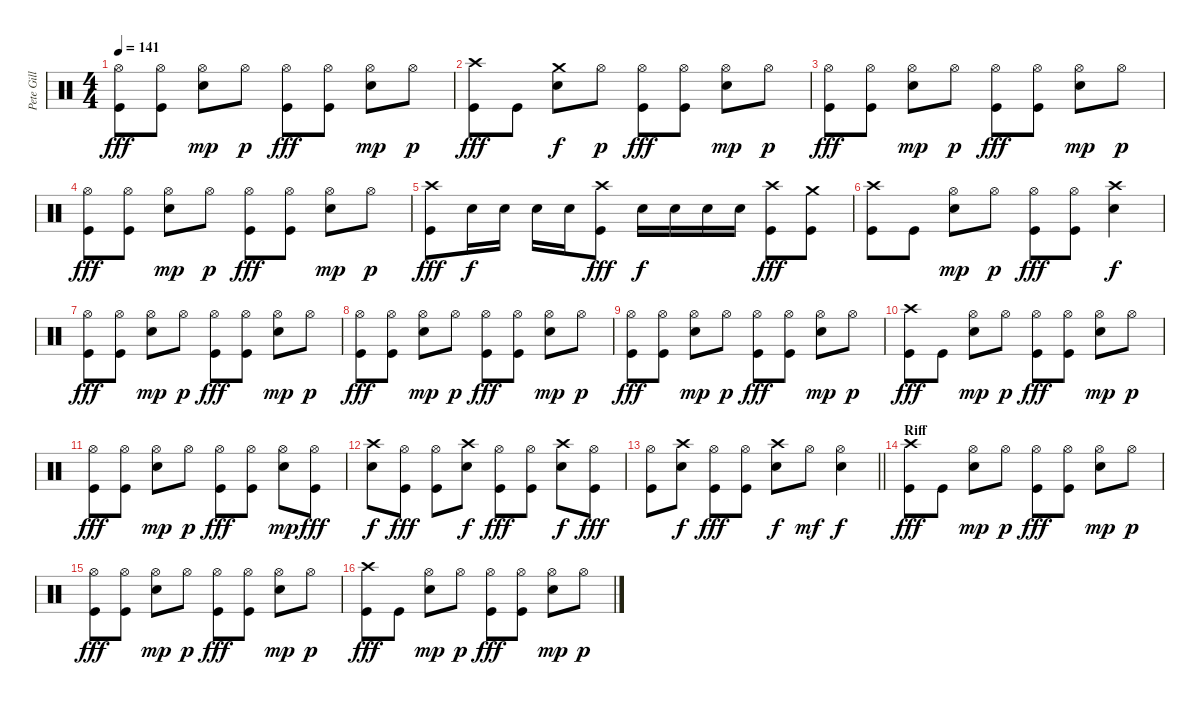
\track ("Pete Gill" "Pete Gill") {instrument percussion}
\staff {score}
\articulation defaults
\ts (4 4)
\tempo 141
\clef neutral
\ks c
("Hi-Hat (open)" "Kick (hit)").8{dy fff} ("Hi-Hat (open)" "Kick (hit)").8 ("Hi-Hat (open)" "Electric Snare (hit)").8{dy mp} "Hi-Hat (open)".8{dy p} ("Hi-Hat (open)" "Kick (hit)").8{dy fff} ("Hi-Hat (open)" "Kick (hit)").8 ("Hi-Hat (open)" "Electric Snare (hit)").8{dy mp} "Hi-Hat (open)".8{dy p} |
("Crash high (hit)" "Kick (hit)").8{dy fff} "Kick (hit)".8 ("Crash medium (hit)" "Electric Snare (hit)").8{dy f} "Hi-Hat (open)".8{dy p} ("Hi-Hat (open)" "Kick (hit)").8{dy fff} ("Hi-Hat (open)" "Kick (hit)").8 ("Hi-Hat (open)" "Electric Snare (hit)").8{dy mp} "Hi-Hat (open)".8{dy p} |
("Hi-Hat (open)" "Kick (hit)").8{dy fff} ("Hi-Hat (open)" "Kick (hit)").8 ("Hi-Hat (open)" "Electric Snare (hit)").8{dy mp} "Hi-Hat (open)".8{dy p} ("Hi-Hat (open)" "Kick (hit)").8{dy fff} ("Hi-Hat (open)" "Kick (hit)").8 ("Hi-Hat (open)" "Electric Snare (hit)").8{dy mp} "Hi-Hat (open)".8{dy p} |
("Hi-Hat (open)" "Kick (hit)").8{dy fff} ("Hi-Hat (open)" "Kick (hit)").8 ("Hi-Hat (open)" "Electric Snare (hit)").8{dy mp} "Hi-Hat (open)".8{dy p} ("Hi-Hat (open)" "Kick (hit)").8{dy fff} ("Hi-Hat (open)" "Kick (hit)").8 ("Hi-Hat (open)" "Electric Snare (hit)").8{dy mp} "Hi-Hat (open)".8{dy p} |
("Crash high (hit)" "Kick (hit)").8{dy fff} "Electric Snare (hit)".16{dy f} "Electric Snare (hit)".16 "Electric Snare (hit)".16 "Electric Snare (hit)".16 ("Crash high (hit)" "Kick (hit)").8{dy fff} "Electric Snare (hit)".16{dy f} "Electric Snare (hit)".16 "Electric Snare (hit)".16 "Electric Snare (hit)".16 ("Crash high (hit)" "Kick (hit)").8{dy fff} ("Crash medium (hit)" "Kick (hit)").8 |
("Crash high (hit)" "Kick (hit)").8 "Kick (hit)".8 ("Hi-Hat (open)" "Electric Snare (hit)").8{dy mp} "Hi-Hat (open)".8{dy p} ("Hi-Hat (open)" "Kick (hit)").8{dy fff} ("Hi-Hat (open)" "Kick (hit)").8 ("Crash high (hit)" "Electric Snare (hit)").4{dy f} |
("Hi-Hat (open)" "Kick (hit)").8{dy fff} ("Hi-Hat (open)" "Kick (hit)").8 ("Hi-Hat (open)" "Electric Snare (hit)").8{dy mp} "Hi-Hat (open)".8{dy p} ("Hi-Hat (open)" "Kick (hit)").8{dy fff} ("Hi-Hat (open)" "Kick (hit)").8 ("Hi-Hat (open)" "Electric Snare (hit)").8{dy mp} "Hi-Hat (open)".8{dy p} |
("Hi-Hat (open)" "Kick (hit)").8{dy fff} ("Hi-Hat (open)" "Kick (hit)").8 ("Hi-Hat (open)" "Electric Snare (hit)").8{dy mp} "Hi-Hat (open)".8{dy p} ("Hi-Hat (open)" "Kick (hit)").8{dy fff} ("Hi-Hat (open)" "Kick (hit)").8 ("Hi-Hat (open)" "Electric Snare (hit)").8{dy mp} "Hi-Hat (open)".8{dy p} |
("Hi-Hat (open)" "Kick (hit)").8{dy fff} ("Hi-Hat (open)" "Kick (hit)").8 ("Hi-Hat (open)" "Electric Snare (hit)").8{dy mp} "Hi-Hat (open)".8{dy p} ("Hi-Hat (open)" "Kick (hit)").8{dy fff} ("Hi-Hat (open)" "Kick (hit)").8 ("Hi-Hat (open)" "Electric Snare (hit)").8{dy mp} "Hi-Hat (open)".8{dy p} |
("Crash high (hit)" "Kick (hit)").8{dy fff} "Kick (hit)".8 ("Hi-Hat (open)" "Electric Snare (hit)").8{dy mp} "Hi-Hat (open)".8{dy p} ("Hi-Hat (open)" "Kick (hit)").8{dy fff} ("Hi-Hat (open)" "Kick (hit)").8 ("Hi-Hat (open)" "Electric Snare (hit)").8{dy mp} "Hi-Hat (open)".8{dy p} |
("Hi-Hat (open)" "Kick (hit)").8{dy fff} ("Hi-Hat (open)" "Kick (hit)").8 ("Hi-Hat (open)" "Electric Snare (hit)").8{dy mp} "Hi-Hat (open)".8{dy p} ("Hi-Hat (open)" "Kick (hit)").8{dy fff} ("Hi-Hat (open)" "Kick (hit)").8 ("Hi-Hat (open)" "Electric Snare (hit)").8{dy mp} ("Hi-Hat (open)" "Kick (hit)").8{dy fff} |
("Crash high (hit)" "Electric Snare (hit)").8{dy f} ("Hi-Hat (open)" "Kick (hit)").8{dy fff} ("Hi-Hat (open)" "Kick (hit)").8 ("Crash high (hit)" "Electric Snare (hit)").8{dy f} ("Hi-Hat (open)" "Kick (hit)").8{dy fff} ("Hi-Hat (open)" "Kick (hit)").8 ("Crash high (hit)" "Electric Snare (hit)").8{dy f} ("Hi-Hat (open)" "Kick (hit)").8{dy fff} |
\barLineRight lightlight
("Hi-Hat (open)" "Kick (hit)").8 ("Crash high (hit)" "Electric Snare (hit)").8{dy f} ("Hi-Hat (open)" "Kick (hit)").8{dy fff} ("Hi-Hat (open)" "Kick (hit)").8 ("Crash high (hit)" "Electric Snare (hit)").8{dy f} "Hi-Hat (open)".8{dy mf} ("Hi-Hat (open)" "Electric Snare (hit)").4{dy f} |
\section ("" "Riff")
("Crash high (hit)" "Kick (hit)").8{dy fff} "Kick (hit)".8 ("Hi-Hat (open)" "Electric Snare (hit)").8{dy mp} "Hi-Hat (open)".8{dy p} ("Hi-Hat (open)" "Kick (hit)").8{dy fff} ("Hi-Hat (open)" "Kick (hit)").8 ("Hi-Hat (open)" "Electric Snare (hit)").8{dy mp} "Hi-Hat (open)".8{dy p} |
("Hi-Hat (open)" "Kick (hit)").8{dy fff} ("Hi-Hat (open)" "Kick (hit)").8 ("Hi-Hat (open)" "Electric Snare (hit)").8{dy mp} "Hi-Hat (open)".8{dy p} ("Hi-Hat (open)" "Kick (hit)").8{dy fff} ("Hi-Hat (open)" "Kick (hit)").8 ("Hi-Hat (open)" "Electric Snare (hit)").8{dy mp} "Hi-Hat (open)".8{dy p} |
("Crash high (hit)" "Kick (hit)").8{dy fff} "Kick (hit)".8 ("Hi-Hat (open)" "Electric Snare (hit)").8{dy mp} "Hi-Hat (open)".8{dy p} ("Hi-Hat (open)" "Kick (hit)").8{dy fff} ("Hi-Hat (open)" "Kick (hit)").8 ("Hi-Hat (open)" "Electric Snare (hit)").8{dy mp} "Hi-Hat (open)".8{dy p}
